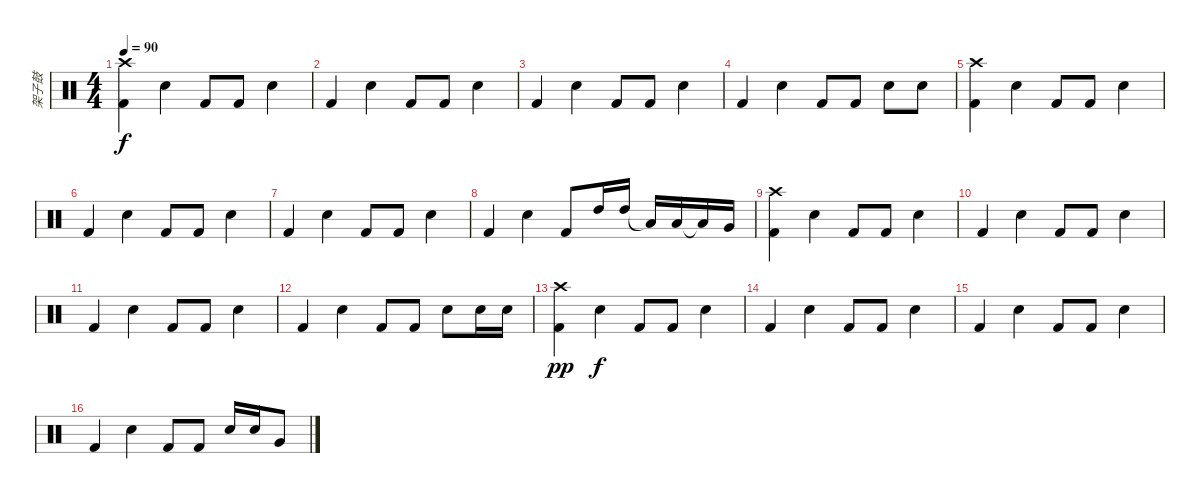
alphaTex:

\track ("架子鼓" "架子鼓") {instrument percussion}
\staff {score}
\articulation defaults
\ts (4 4)
\tempo 90
\clef neutral
\ks c
("Kick (hit) 2" "Crash high (hit)").4{dy f} "Electric Snare (hit)".4 "Kick (hit) 2".8 "Kick (hit) 2".8 "Electric Snare (hit)".4 |
"Kick (hit) 2".4 "Electric Snare (hit)".4 "Kick (hit) 2".8 "Kick (hit) 2".8 "Electric Snare (hit)".4 |
"Kick (hit) 2".4 "Electric Snare (hit)".4 "Kick (hit) 2".8 "Kick (hit) 2".8 "Electric Snare (hit)".4 |
"Kick (hit) 2".4 "Electric Snare (hit)".4 "Kick (hit) 2".8 "Kick (hit) 2".8 "Electric Snare (hit)".8 "Electric Snare (hit)".8 |
("Kick (hit) 2" "Crash high (hit)").4 "Electric Snare (hit)".4 "Kick (hit) 2".8 "Kick (hit) 2".8 "Electric Snare (hit)".4 |
"Kick (hit) 2".4 "Electric Snare (hit)".4 "Kick (hit) 2".8 "Kick (hit) 2".8 "Electric Snare (hit)".4 |
"Kick (hit) 2".4 "Electric Snare (hit)".4 "Kick (hit) 2".8 "Kick (hit) 2".8 "Electric Snare (hit)".4 |
"Kick (hit) 2".4 "Electric Snare (hit)".4 "Kick (hit) 2".8 "High Tom (hit)".16 "High Tom (hit)".16 "Low Tom (hit)"{t}.16 "Low Tom (hit)".16 "Low Tom (hit)"{t}.16 "Very Low Tom (hit)".16 |
("Kick (hit) 2" "Crash high (hit)").4 "Electric Snare (hit)".4 "Kick (hit) 2".8 "Kick (hit) 2".8 "Electric Snare (hit)".4 |
"Kick (hit) 2".4 "Electric Snare (hit)".4 "Kick (hit) 2".8 "Kick (hit) 2".8 "Electric Snare (hit)".4 |
"Kick (hit) 2".4 "Electric Snare (hit)".4 "Kick (hit) 2".8 "Kick (hit) 2".8 "Electric Snare (hit)".4 |
"Kick (hit) 2".4 "Electric Snare (hit)".4 "Kick (hit) 2".8 "Kick (hit) 2".8 "Electric Snare (hit)".8 "Electric Snare (hit)".16 "Electric Snare (hit)".16 |
("Kick (hit) 2" "Crash high (hit)").4{dy pp} "Electric Snare (hit)".4{dy f} "Kick (hit) 2".8 "Kick (hit) 2".8 "Electric Snare (hit)".4 |
"Kick (hit) 2".4 "Electric Snare (hit)".4 "Kick (hit) 2".8 "Kick (hit) 2".8 "Electric Snare (hit)".4 |
"Kick (hit) 2".4 "Electric Snare (hit)".4 "Kick (hit) 2".8 "Kick (hit) 2".8 "Electric Snare (hit)".4 |
"Kick (hit) 2".4 "Electric Snare (hit)".4 "Kick (hit) 2".8 "Kick (hit) 2".8 "Electric Snare (hit)".16 "Electric Snare (hit)".16 "Very Low Tom (hit)".8
